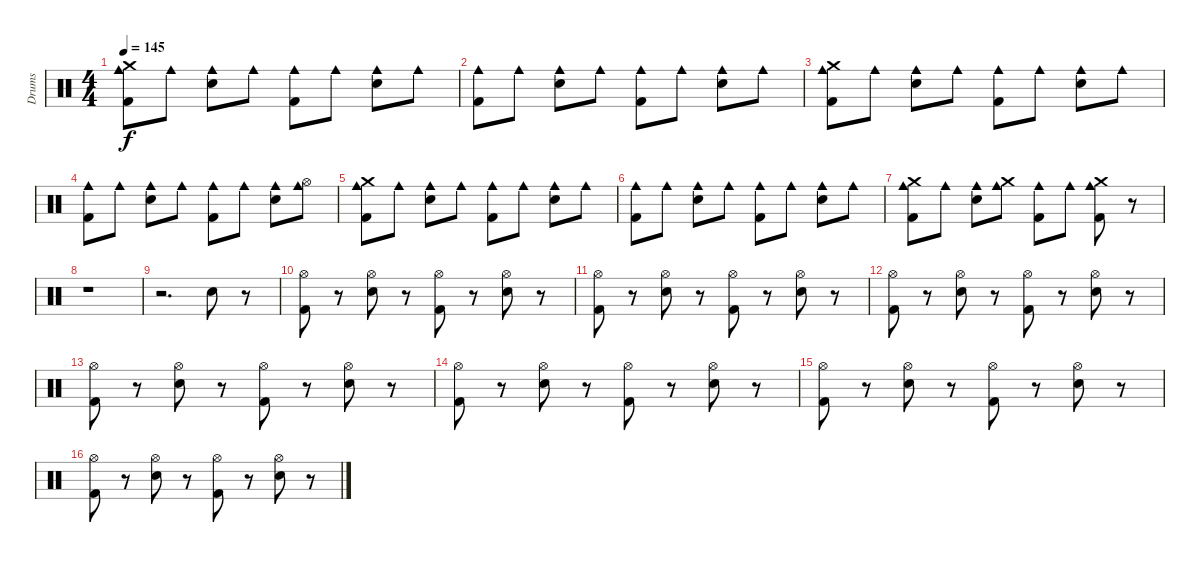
\track ("Drums" "Drums") {instrument percussion}
\staff {score}
\articulation defaults
\ts (4 4)
\tempo 145
\clef neutral
\ks c
("Crash medium (hit)" "Cowbell medium (hit)" "Kick (hit) 2").8{dy f} "Cowbell medium (hit)".8 ("Cowbell medium (hit)" "Electric Snare (hit)").8 "Cowbell medium (hit)".8 ("Cowbell medium (hit)" "Kick (hit) 2").8 "Cowbell medium (hit)".8 ("Cowbell medium (hit)" "Electric Snare (hit)").8 "Cowbell medium (hit)".8 |
("Cowbell medium (hit)" "Kick (hit) 2").8 "Cowbell medium (hit)".8 ("Cowbell medium (hit)" "Electric Snare (hit)").8 "Cowbell medium (hit)".8 ("Cowbell medium (hit)" "Kick (hit) 2").8 "Cowbell medium (hit)".8 ("Cowbell medium (hit)" "Electric Snare (hit)").8 "Cowbell medium (hit)".8 |
("Crash medium (hit)" "Cowbell medium (hit)" "Kick (hit) 2").8 "Cowbell medium (hit)".8 ("Cowbell medium (hit)" "Electric Snare (hit)").8 "Cowbell medium (hit)".8 ("Cowbell medium (hit)" "Kick (hit) 2").8 "Cowbell medium (hit)".8 ("Cowbell medium (hit)" "Electric Snare (hit)").8 "Cowbell medium (hit)".8 |
("Cowbell medium (hit)" "Kick (hit) 2").8 "Cowbell medium (hit)".8 ("Cowbell medium (hit)" "Electric Snare (hit)").8 "Cowbell medium (hit)".8 ("Cowbell medium (hit)" "Kick (hit) 2").8 "Cowbell medium (hit)".8 ("Cowbell medium (hit)" "Electric Snare (hit)").8 ("Hi-Hat (open)" "Cowbell medium (hit)").8 |
("Crash medium (hit)" "Cowbell medium (hit)" "Kick (hit) 2").8 "Cowbell medium (hit)".8 ("Cowbell medium (hit)" "Electric Snare (hit)").8 "Cowbell medium (hit)".8 ("Cowbell medium (hit)" "Kick (hit) 2").8 "Cowbell medium (hit)".8 ("Cowbell medium (hit)" "Electric Snare (hit)").8 "Cowbell medium (hit)".8 |
("Cowbell medium (hit)" "Kick (hit) 2").8 "Cowbell medium (hit)".8 ("Cowbell medium (hit)" "Electric Snare (hit)").8 "Cowbell medium (hit)".8 ("Cowbell medium (hit)" "Kick (hit) 2").8 "Cowbell medium (hit)".8 ("Cowbell medium (hit)" "Electric Snare (hit)").8 "Cowbell medium (hit)".8 |
("Crash medium (hit)" "Cowbell medium (hit)" "Kick (hit) 2").8 "Cowbell medium (hit)".8 ("Cowbell medium (hit)" "Electric Snare (hit)").8 ("Crash medium (hit)" "Cowbell medium (hit)").8 ("Cowbell medium (hit)" "Kick (hit) 2").8 "Cowbell medium (hit)".8 ("Crash medium (hit)" "Cowbell medium (hit)" "Kick (hit) 2").8 r.8 |
r.1 |
r.2{d} "Electric Snare (hit)".8 r.8 |
("Hi-Hat (open)" "Kick (hit) 2").8 r.8 ("Hi-Hat (open)" "Electric Snare (hit)").8 r.8 ("Hi-Hat (open)" "Kick (hit) 2").8 r.8 ("Hi-Hat (open)" "Electric Snare (hit)").8 r.8 |
("Hi-Hat (open)" "Kick (hit) 2").8 r.8 ("Hi-Hat (open)" "Electric Snare (hit)").8 r.8 ("Hi-Hat (open)" "Kick (hit) 2").8 r.8 ("Hi-Hat (open)" "Electric Snare (hit)").8 r.8 |
("Hi-Hat (open)" "Kick (hit) 2").8 r.8 ("Hi-Hat (open)" "Electric Snare (hit)").8 r.8 ("Hi-Hat (open)" "Kick (hit) 2").8 r.8 ("Hi-Hat (open)" "Electric Snare (hit)").8 r.8 |
("Hi-Hat (open)" "Kick (hit) 2").8 r.8 ("Hi-Hat (open)" "Electric Snare (hit)").8 r.8 ("Hi-Hat (open)" "Kick (hit) 2").8 r.8 ("Hi-Hat (open)" "Electric Snare (hit)").8 r.8 |
("Hi-Hat (open)" "Kick (hit) 2").8 r.8 ("Hi-Hat (open)" "Electric Snare (hit)").8 r.8 ("Hi-Hat (open)" "Kick (hit) 2").8 r.8 ("Hi-Hat (open)" "Electric Snare (hit)").8 r.8 |
("Hi-Hat (open)" "Kick (hit) 2").8 r.8 ("Hi-Hat (open)" "Electric Snare (hit)").8 r.8 ("Hi-Hat (open)" "Kick (hit) 2").8 r.8 ("Hi-Hat (open)" "Electric Snare (hit)").8 r.8 |
("Hi-Hat (open)" "Kick (hit) 2").8 r.8 ("Hi-Hat (open)" "Electric Snare (hit)").8 r.8 ("Hi-Hat (open)" "Kick (hit) 2").8 r.8 ("Hi-Hat (open)" "Electric Snare (hit)").8 r.8
